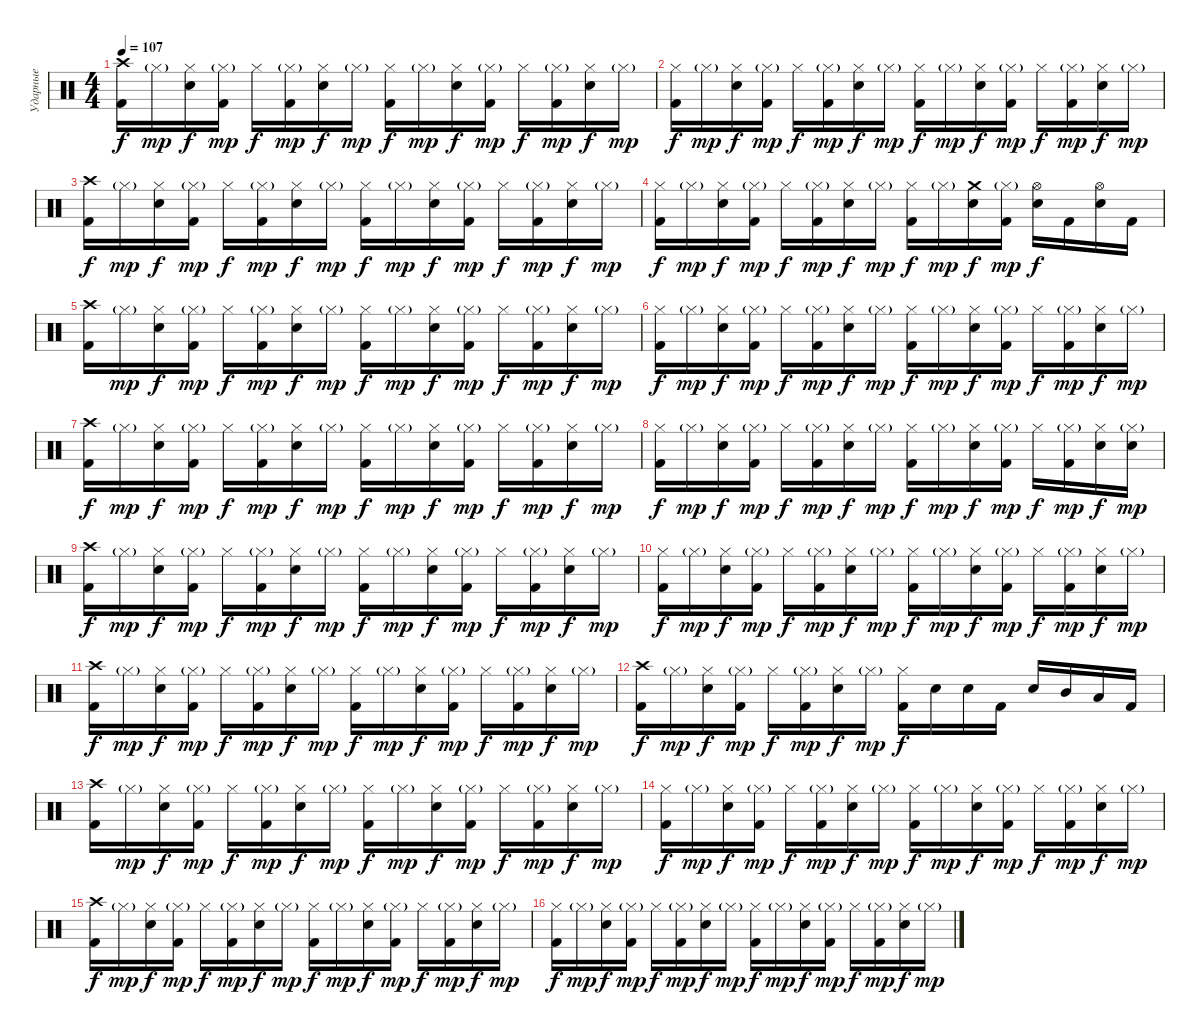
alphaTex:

\track ("Ударные" "Ударные") {instrument percussion}
\staff {score}
\articulation defaults
\ts (4 4)
\tempo 107
\clef neutral
\ks c
("Kick (hit) 2" "Crash high (hit)").16{dy f} "Hi-Hat (closed)"{g}.16{dy mp} ("Electric Snare (hit)" "Hi-Hat (closed)").16{dy f} ("Kick (hit) 2" "Hi-Hat (closed)"{g}).16{dy mp} "Hi-Hat (closed)".16{dy f} ("Kick (hit) 2" "Hi-Hat (closed)"{g}).16{dy mp} ("Electric Snare (hit)" "Hi-Hat (closed)").16{dy f} "Hi-Hat (closed)"{g}.16{dy mp} ("Kick (hit) 2" "Hi-Hat (closed)").16{dy f} "Hi-Hat (closed)"{g}.16{dy mp} ("Electric Snare (hit)" "Hi-Hat (closed)").16{dy f} ("Kick (hit) 2" "Hi-Hat (closed)"{g}).16{dy mp} "Hi-Hat (closed)".16{dy f} ("Kick (hit) 2" "Hi-Hat (closed)"{g}).16{dy mp} ("Electric Snare (hit)" "Hi-Hat (closed)").16{dy f} "Hi-Hat (closed)"{g}.16{dy mp} |
("Kick (hit) 2" "Hi-Hat (closed)").16{dy f} "Hi-Hat (closed)"{g}.16{dy mp} ("Electric Snare (hit)" "Hi-Hat (closed)").16{dy f} ("Kick (hit) 2" "Hi-Hat (closed)"{g}).16{dy mp} "Hi-Hat (closed)".16{dy f} ("Kick (hit) 2" "Hi-Hat (closed)"{g}).16{dy mp} ("Electric Snare (hit)" "Hi-Hat (closed)").16{dy f} "Hi-Hat (closed)"{g}.16{dy mp} ("Kick (hit) 2" "Hi-Hat (closed)").16{dy f} "Hi-Hat (closed)"{g}.16{dy mp} ("Electric Snare (hit)" "Hi-Hat (closed)").16{dy f} ("Kick (hit) 2" "Hi-Hat (closed)"{g}).16{dy mp} "Hi-Hat (closed)".16{dy f} ("Kick (hit) 2" "Hi-Hat (closed)"{g}).16{dy mp} ("Electric Snare (hit)" "Hi-Hat (closed)").16{dy f} "Hi-Hat (closed)"{g}.16{dy mp} |
("Kick (hit) 2" "Crash high (hit)").16{dy f} "Hi-Hat (closed)"{g}.16{dy mp} ("Electric Snare (hit)" "Hi-Hat (closed)").16{dy f} ("Kick (hit) 2" "Hi-Hat (closed)"{g}).16{dy mp} "Hi-Hat (closed)".16{dy f} ("Kick (hit) 2" "Hi-Hat (closed)"{g}).16{dy mp} ("Electric Snare (hit)" "Hi-Hat (closed)").16{dy f} "Hi-Hat (closed)"{g}.16{dy mp} ("Kick (hit) 2" "Hi-Hat (closed)").16{dy f} "Hi-Hat (closed)"{g}.16{dy mp} ("Electric Snare (hit)" "Hi-Hat (closed)").16{dy f} ("Kick (hit) 2" "Hi-Hat (closed)"{g}).16{dy mp} "Hi-Hat (closed)".16{dy f} ("Kick (hit) 2" "Hi-Hat (closed)"{g}).16{dy mp} ("Electric Snare (hit)" "Hi-Hat (closed)").16{dy f} "Hi-Hat (closed)"{g}.16{dy mp} |
("Kick (hit) 2" "Hi-Hat (closed)").16{dy f} "Hi-Hat (closed)"{g}.16{dy mp} ("Electric Snare (hit)" "Hi-Hat (closed)").16{dy f} ("Kick (hit) 2" "Hi-Hat (closed)"{g}).16{dy mp} "Hi-Hat (closed)".16{dy f} ("Kick (hit) 2" "Hi-Hat (closed)"{g}).16{dy mp} ("Electric Snare (hit)" "Hi-Hat (closed)").16{dy f} "Hi-Hat (closed)"{g}.16{dy mp} ("Kick (hit) 2" "Hi-Hat (closed)").16{dy f} "Hi-Hat (closed)"{g}.16{dy mp} ("Electric Snare (hit)" "Crash medium (hit)").16{dy f} ("Kick (hit) 2" "Hi-Hat (closed)"{g}).16{dy mp} ("Electric Snare (hit)" "Hi-Hat (open)").16{dy f} "Kick (hit) 2".16 ("Electric Snare (hit)" "Hi-Hat (open)").16 "Kick (hit) 2".16 |
("Kick (hit) 2" "Crash high (hit)").16 "Hi-Hat (closed)"{g}.16{dy mp} ("Electric Snare (hit)" "Hi-Hat (closed)").16{dy f} ("Kick (hit) 2" "Hi-Hat (closed)"{g}).16{dy mp} "Hi-Hat (closed)".16{dy f} ("Kick (hit) 2" "Hi-Hat (closed)"{g}).16{dy mp} ("Electric Snare (hit)" "Hi-Hat (closed)").16{dy f} "Hi-Hat (closed)"{g}.16{dy mp} ("Kick (hit) 2" "Hi-Hat (closed)").16{dy f} "Hi-Hat (closed)"{g}.16{dy mp} ("Electric Snare (hit)" "Hi-Hat (closed)").16{dy f} ("Kick (hit) 2" "Hi-Hat (closed)"{g}).16{dy mp} "Hi-Hat (closed)".16{dy f} ("Kick (hit) 2" "Hi-Hat (closed)"{g}).16{dy mp} ("Electric Snare (hit)" "Hi-Hat (closed)").16{dy f} "Hi-Hat (closed)"{g}.16{dy mp} |
("Kick (hit) 2" "Hi-Hat (closed)").16{dy f} "Hi-Hat (closed)"{g}.16{dy mp} ("Electric Snare (hit)" "Hi-Hat (closed)").16{dy f} ("Kick (hit) 2" "Hi-Hat (closed)"{g}).16{dy mp} "Hi-Hat (closed)".16{dy f} ("Kick (hit) 2" "Hi-Hat (closed)"{g}).16{dy mp} ("Electric Snare (hit)" "Hi-Hat (closed)").16{dy f} "Hi-Hat (closed)"{g}.16{dy mp} ("Kick (hit) 2" "Hi-Hat (closed)").16{dy f} "Hi-Hat (closed)"{g}.16{dy mp} ("Electric Snare (hit)" "Hi-Hat (closed)").16{dy f} ("Kick (hit) 2" "Hi-Hat (closed)"{g}).16{dy mp} "Hi-Hat (closed)".16{dy f} ("Kick (hit) 2" "Hi-Hat (closed)"{g}).16{dy mp} ("Electric Snare (hit)" "Hi-Hat (closed)").16{dy f} "Hi-Hat (closed)"{g}.16{dy mp} |
("Kick (hit) 2" "Crash high (hit)").16{dy f} "Hi-Hat (closed)"{g}.16{dy mp} ("Electric Snare (hit)" "Hi-Hat (closed)").16{dy f} ("Kick (hit) 2" "Hi-Hat (closed)"{g}).16{dy mp} "Hi-Hat (closed)".16{dy f} ("Kick (hit) 2" "Hi-Hat (closed)"{g}).16{dy mp} ("Electric Snare (hit)" "Hi-Hat (closed)").16{dy f} "Hi-Hat (closed)"{g}.16{dy mp} ("Kick (hit) 2" "Hi-Hat (closed)").16{dy f} "Hi-Hat (closed)"{g}.16{dy mp} ("Electric Snare (hit)" "Hi-Hat (closed)").16{dy f} ("Kick (hit) 2" "Hi-Hat (closed)"{g}).16{dy mp} "Hi-Hat (closed)".16{dy f} ("Kick (hit) 2" "Hi-Hat (closed)"{g}).16{dy mp} ("Electric Snare (hit)" "Hi-Hat (closed)").16{dy f} "Hi-Hat (closed)"{g}.16{dy mp} |
("Kick (hit) 2" "Hi-Hat (closed)").16{dy f} "Hi-Hat (closed)"{g}.16{dy mp} ("Electric Snare (hit)" "Hi-Hat (closed)").16{dy f} ("Kick (hit) 2" "Hi-Hat (closed)"{g}).16{dy mp} "Hi-Hat (closed)".16{dy f} ("Kick (hit) 2" "Hi-Hat (closed)"{g}).16{dy mp} ("Electric Snare (hit)" "Hi-Hat (closed)").16{dy f} "Hi-Hat (closed)"{g}.16{dy mp} ("Kick (hit) 2" "Hi-Hat (closed)").16{dy f} "Hi-Hat (closed)"{g}.16{dy mp} ("Electric Snare (hit)" "Hi-Hat (closed)").16{dy f} ("Kick (hit) 2" "Hi-Hat (closed)"{g}).16{dy mp} "Hi-Hat (closed)".16{dy f} ("Kick (hit) 2" "Hi-Hat (closed)"{g}).16{dy mp} ("Electric Snare (hit)" "Hi-Hat (closed)").16{dy f} ("Electric Snare (hit)" "Hi-Hat (closed)"{g}).16{dy mp} |
("Kick (hit) 2" "Crash high (hit)").16{dy f} "Hi-Hat (closed)"{g}.16{dy mp} ("Electric Snare (hit)" "Hi-Hat (closed)").16{dy f} ("Kick (hit) 2" "Hi-Hat (closed)"{g}).16{dy mp} "Hi-Hat (closed)".16{dy f} ("Kick (hit) 2" "Hi-Hat (closed)"{g}).16{dy mp} ("Electric Snare (hit)" "Hi-Hat (closed)").16{dy f} "Hi-Hat (closed)"{g}.16{dy mp} ("Kick (hit) 2" "Hi-Hat (closed)").16{dy f} "Hi-Hat (closed)"{g}.16{dy mp} ("Electric Snare (hit)" "Hi-Hat (closed)").16{dy f} ("Kick (hit) 2" "Hi-Hat (closed)"{g}).16{dy mp} "Hi-Hat (closed)".16{dy f} ("Kick (hit) 2" "Hi-Hat (closed)"{g}).16{dy mp} ("Electric Snare (hit)" "Hi-Hat (closed)").16{dy f} "Hi-Hat (closed)"{g}.16{dy mp} |
("Kick (hit) 2" "Hi-Hat (closed)").16{dy f} "Hi-Hat (closed)"{g}.16{dy mp} ("Electric Snare (hit)" "Hi-Hat (closed)").16{dy f} ("Kick (hit) 2" "Hi-Hat (closed)"{g}).16{dy mp} "Hi-Hat (closed)".16{dy f} ("Kick (hit) 2" "Hi-Hat (closed)"{g}).16{dy mp} ("Electric Snare (hit)" "Hi-Hat (closed)").16{dy f} "Hi-Hat (closed)"{g}.16{dy mp} ("Kick (hit) 2" "Hi-Hat (closed)").16{dy f} "Hi-Hat (closed)"{g}.16{dy mp} ("Electric Snare (hit)" "Hi-Hat (closed)").16{dy f} ("Kick (hit) 2" "Hi-Hat (closed)"{g}).16{dy mp} "Hi-Hat (closed)".16{dy f} ("Kick (hit) 2" "Hi-Hat (closed)"{g}).16{dy mp} ("Electric Snare (hit)" "Hi-Hat (closed)").16{dy f} "Hi-Hat (closed)"{g}.16{dy mp} |
("Kick (hit) 2" "Crash high (hit)").16{dy f} "Hi-Hat (closed)"{g}.16{dy mp} ("Electric Snare (hit)" "Hi-Hat (closed)").16{dy f} ("Kick (hit) 2" "Hi-Hat (closed)"{g}).16{dy mp} "Hi-Hat (closed)".16{dy f} ("Kick (hit) 2" "Hi-Hat (closed)"{g}).16{dy mp} ("Electric Snare (hit)" "Hi-Hat (closed)").16{dy f} "Hi-Hat (closed)"{g}.16{dy mp} ("Kick (hit) 2" "Hi-Hat (closed)").16{dy f} "Hi-Hat (closed)"{g}.16{dy mp} ("Electric Snare (hit)" "Hi-Hat (closed)").16{dy f} ("Kick (hit) 2" "Hi-Hat (closed)"{g}).16{dy mp} "Hi-Hat (closed)".16{dy f} ("Kick (hit) 2" "Hi-Hat (closed)"{g}).16{dy mp} ("Electric Snare (hit)" "Hi-Hat (closed)").16{dy f} "Hi-Hat (closed)"{g}.16{dy mp} |
("Kick (hit) 2" "Crash high (hit)").16{dy f} "Hi-Hat (closed)"{g}.16{dy mp} ("Electric Snare (hit)" "Hi-Hat (closed)").16{dy f} ("Kick (hit) 2" "Hi-Hat (closed)"{g}).16{dy mp} "Hi-Hat (closed)".16{dy f} ("Kick (hit) 2" "Hi-Hat (closed)"{g}).16{dy mp} ("Electric Snare (hit)" "Hi-Hat (closed)").16{dy f} "Hi-Hat (closed)"{g}.16{dy mp} ("Kick (hit) 2" "Hi-Hat (closed)").16{dy f} "Electric Snare (hit)".16 "Electric Snare (hit)".16 "Kick (hit) 2".16 "Electric Snare (hit)".16 "Mid Tom (hit)".16 "Low Tom (hit)".16 "Kick (hit) 2".16 |
("Kick (hit) 2" "Crash high (hit)").16 "Hi-Hat (closed)"{g}.16{dy mp} ("Electric Snare (hit)" "Hi-Hat (closed)").16{dy f} ("Kick (hit) 2" "Hi-Hat (closed)"{g}).16{dy mp} "Hi-Hat (closed)".16{dy f} ("Kick (hit) 2" "Hi-Hat (closed)"{g}).16{dy mp} ("Electric Snare (hit)" "Hi-Hat (closed)").16{dy f} "Hi-Hat (closed)"{g}.16{dy mp} ("Kick (hit) 2" "Hi-Hat (closed)").16{dy f} "Hi-Hat (closed)"{g}.16{dy mp} ("Electric Snare (hit)" "Hi-Hat (closed)").16{dy f} ("Kick (hit) 2" "Hi-Hat (closed)"{g}).16{dy mp} "Hi-Hat (closed)".16{dy f} ("Kick (hit) 2" "Hi-Hat (closed)"{g}).16{dy mp} ("Electric Snare (hit)" "Hi-Hat (closed)").16{dy f} "Hi-Hat (closed)"{g}.16{dy mp} |
("Kick (hit) 2" "Hi-Hat (closed)").16{dy f} "Hi-Hat (closed)"{g}.16{dy mp} ("Electric Snare (hit)" "Hi-Hat (closed)").16{dy f} ("Kick (hit) 2" "Hi-Hat (closed)"{g}).16{dy mp} "Hi-Hat (closed)".16{dy f} ("Kick (hit) 2" "Hi-Hat (closed)"{g}).16{dy mp} ("Electric Snare (hit)" "Hi-Hat (closed)").16{dy f} "Hi-Hat (closed)"{g}.16{dy mp} ("Kick (hit) 2" "Hi-Hat (closed)").16{dy f} "Hi-Hat (closed)"{g}.16{dy mp} ("Electric Snare (hit)" "Hi-Hat (closed)").16{dy f} ("Kick (hit) 2" "Hi-Hat (closed)"{g}).16{dy mp} "Hi-Hat (closed)".16{dy f} ("Kick (hit) 2" "Hi-Hat (closed)"{g}).16{dy mp} ("Electric Snare (hit)" "Hi-Hat (closed)").16{dy f} "Hi-Hat (closed)"{g}.16{dy mp} |
("Kick (hit) 2" "Crash high (hit)").16{dy f} "Hi-Hat (closed)"{g}.16{dy mp} ("Electric Snare (hit)" "Hi-Hat (closed)").16{dy f} ("Kick (hit) 2" "Hi-Hat (closed)"{g}).16{dy mp} "Hi-Hat (closed)".16{dy f} ("Kick (hit) 2" "Hi-Hat (closed)"{g}).16{dy mp} ("Electric Snare (hit)" "Hi-Hat (closed)").16{dy f} "Hi-Hat (closed)"{g}.16{dy mp} ("Kick (hit) 2" "Hi-Hat (closed)").16{dy f} "Hi-Hat (closed)"{g}.16{dy mp} ("Electric Snare (hit)" "Hi-Hat (closed)").16{dy f} ("Kick (hit) 2" "Hi-Hat (closed)"{g}).16{dy mp} "Hi-Hat (closed)".16{dy f} ("Kick (hit) 2" "Hi-Hat (closed)"{g}).16{dy mp} ("Electric Snare (hit)" "Hi-Hat (closed)").16{dy f} "Hi-Hat (closed)"{g}.16{dy mp} |
("Kick (hit) 2" "Hi-Hat (closed)").16{dy f} "Hi-Hat (closed)"{g}.16{dy mp} ("Electric Snare (hit)" "Hi-Hat (closed)").16{dy f} ("Kick (hit) 2" "Hi-Hat (closed)"{g}).16{dy mp} "Hi-Hat (closed)".16{dy f} ("Kick (hit) 2" "Hi-Hat (closed)"{g}).16{dy mp} ("Electric Snare (hit)" "Hi-Hat (closed)").16{dy f} "Hi-Hat (closed)"{g}.16{dy mp} ("Kick (hit) 2" "Hi-Hat (closed)").16{dy f} "Hi-Hat (closed)"{g}.16{dy mp} ("Electric Snare (hit)" "Hi-Hat (closed)").16{dy f} ("Kick (hit) 2" "Hi-Hat (closed)"{g}).16{dy mp} "Hi-Hat (closed)".16{dy f} ("Kick (hit) 2" "Hi-Hat (closed)"{g}).16{dy mp} ("Electric Snare (hit)" "Hi-Hat (closed)").16{dy f} "Hi-Hat (closed)"{g}.16{dy mp}
